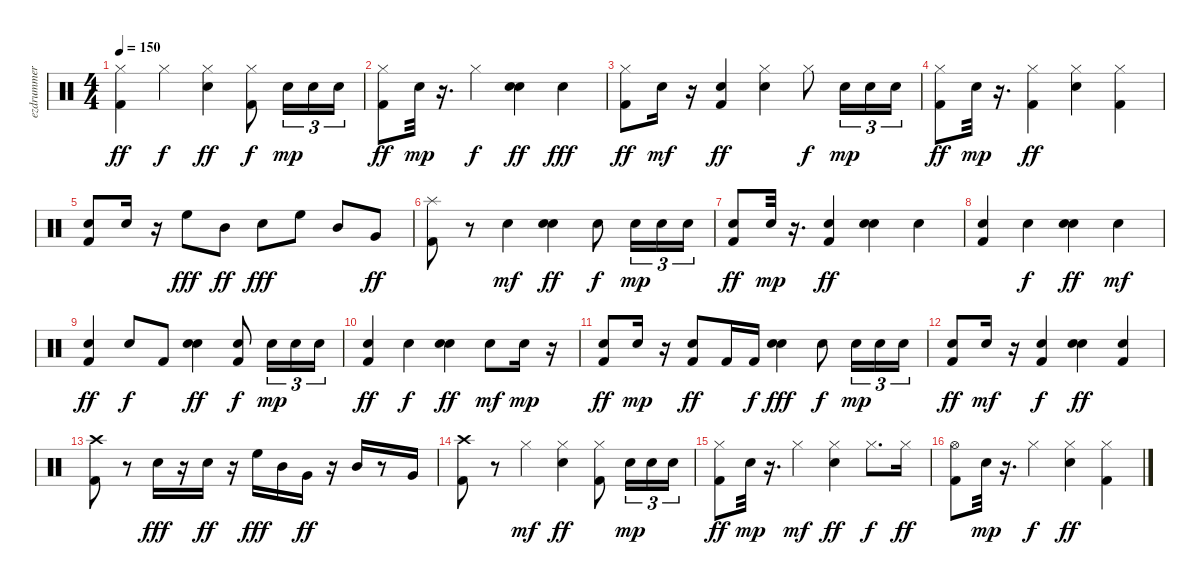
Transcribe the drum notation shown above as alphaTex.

\track ("ezdrummer 03" "ezdrummer ") {instrument percussion}
\staff {score}
\articulation defaults
\ts (4 4)
\tempo 150
\clef neutral
\ks c
("Kick (hit) 2" "Hi-Hat (closed)").4{dy ff} "Hi-Hat (closed)".4{dy f} ("Snare (hit) 2" "Hi-Hat (closed)").4{dy ff} ("Kick (hit) 2" "Hi-Hat (closed)").8{dy f} "Snare (hit) 2".16{tu (3 2) dy mp} "Snare (hit) 2".16{tu (3 2)} "Snare (hit) 2".16{tu (3 2)} |
("Kick (hit) 2" "Hi-Hat (closed)").8{dy ff} "Snare (hit) 2".32{dy mp} r.16{d} "Hi-Hat (closed)".4{dy f} ("Snare (hit)" "Snare (hit) 2").4{dy ff} "Snare (hit)".4{dy fff} |
("Hi-Hat (closed)" "Kick (hit) 2").8{dy ff} "Snare (hit) 2".16{dy mf} r.16 ("Snare (hit)" "Kick (hit) 2").4{dy ff} ("Hi-Hat (closed)" "Snare (hit) 2").4 "Hi-Hat (closed)".8{dy f} "Snare (hit) 2".16{tu (3 2) dy mp} "Snare (hit) 2".16{tu (3 2)} "Snare (hit) 2".16{tu (3 2)} |
("Kick (hit) 2" "Hi-Hat (closed)").8{dy ff} "Snare (hit) 2".32{dy mp} r.16{d} ("Kick (hit) 2" "Hi-Hat (closed)").4{dy ff} ("Snare (hit) 2" "Hi-Hat (closed)").4 ("Kick (hit) 2" "Hi-Hat (closed)").4 |
("Snare (hit)" "Kick (hit) 2").8 "Snare (hit) 2".16 r.16 "High Floor Tom (hit)".8{dy fff} "Mid Tom (hit)".8{dy ff} "Snare (hit) 2".8{dy fff} "High Floor Tom (hit)".8 "Mid Tom (hit)".8 "Very Low Tom (hit)".8{dy ff} |
("Kick (hit) 2" "Splash (hit)").8 r.8 "Snare (hit)".4{dy mf} ("Snare (hit)" "Snare (hit) 2").4{dy ff} "Snare (hit)".8{dy f} "Snare (hit) 2".16{tu (3 2) dy mp} "Snare (hit) 2".16{tu (3 2)} "Snare (hit) 2".16{tu (3 2)} |
("Snare (hit)" "Kick (hit) 2").8{dy ff} "Snare (hit) 2".32{dy mp} r.16{d} ("Snare (hit)" "Kick (hit) 2").4{dy ff} ("Snare (hit)" "Snare (hit) 2").4 "Snare (hit)".4 |
("Snare (hit)" "Kick (hit) 2").4 "Snare (hit)".4{dy f} ("Snare (hit)" "Snare (hit) 2").4{dy ff} "Snare (hit)".4{dy mf} |
("Snare (hit)" "Kick (hit) 2").4{dy ff} "Snare (hit)".8{dy f} "Kick (hit) 2".8 ("Snare (hit)" "Snare (hit) 2").4{dy ff} ("Snare (hit)" "Kick (hit) 2").8{dy f} "Snare (hit) 2".16{tu (3 2) dy mp} "Snare (hit) 2".16{tu (3 2)} "Snare (hit) 2".16{tu (3 2)} |
("Snare (hit)" "Kick (hit) 2").4{dy ff} "Snare (hit)".4{dy f} ("Snare (hit)" "Snare (hit) 2").4{dy ff} "Snare (hit)".8{dy mf} "Snare (hit) 2".16{dy mp} r.16 |
("Snare (hit)" "Kick (hit) 2").8{dy ff} "Snare (hit) 2".16{dy mp} r.16 ("Snare (hit)" "Kick (hit) 2").8{dy ff} "Kick (hit) 2".16 "Kick (hit) 2".16{dy f} ("Snare (hit)" "Snare (hit) 2").4{dy fff} "Snare (hit)".8{dy f} "Snare (hit) 2".16{tu (3 2) dy mp} "Snare (hit) 2".16{tu (3 2)} "Snare (hit) 2".16{tu (3 2)} |
("Snare (hit)" "Kick (hit) 2").8{dy ff} "Snare (hit) 2".16{dy mf} r.16 ("Snare (hit)" "Kick (hit) 2").4{dy f} ("Snare (hit)" "Snare (hit) 2").4{dy ff} ("Snare (hit)" "Kick (hit) 2").4 |
("Kick (hit) 2" "Crash high (hit)").8 r.8 "Snare (hit) 2".16{dy fff} r.16 "Snare (hit) 2".16{dy ff} r.16 "High Floor Tom (hit)".16{dy fff} "Mid Tom (hit)".16 "Very Low Tom (hit)".16{dy ff} r.16 "Mid Tom (hit)".16 r.8 "Very Low Tom (hit)".16 |
("Kick (hit) 2" "Crash high (hit)").8 r.8 "Hi-Hat (closed)".4{dy mf} ("Snare (hit) 2" "Hi-Hat (closed)").4{dy ff} ("Kick (hit) 2" "Hi-Hat (closed)").8 "Snare (hit) 2".16{tu (3 2) dy mp} "Snare (hit) 2".16{tu (3 2)} "Snare (hit) 2".16{tu (3 2)} |
("Kick (hit) 2" "Hi-Hat (closed)").8{dy ff} "Snare (hit) 2".32{dy mp} r.16{d} "Hi-Hat (closed)".4{dy mf} ("Snare (hit) 2" "Hi-Hat (closed)").4{dy ff} "Hi-Hat (closed)".8{d dy f} "Hi-Hat (closed)".16{dy ff} |
("Kick (hit) 2" "Hi-Hat (open)").8 "Snare (hit) 2".32{dy mp} r.16{d} "Hi-Hat (closed)".4{dy f} ("Snare (hit) 2" "Hi-Hat (closed)").4{dy ff} ("Kick (hit) 2" "Hi-Hat (closed)").4
